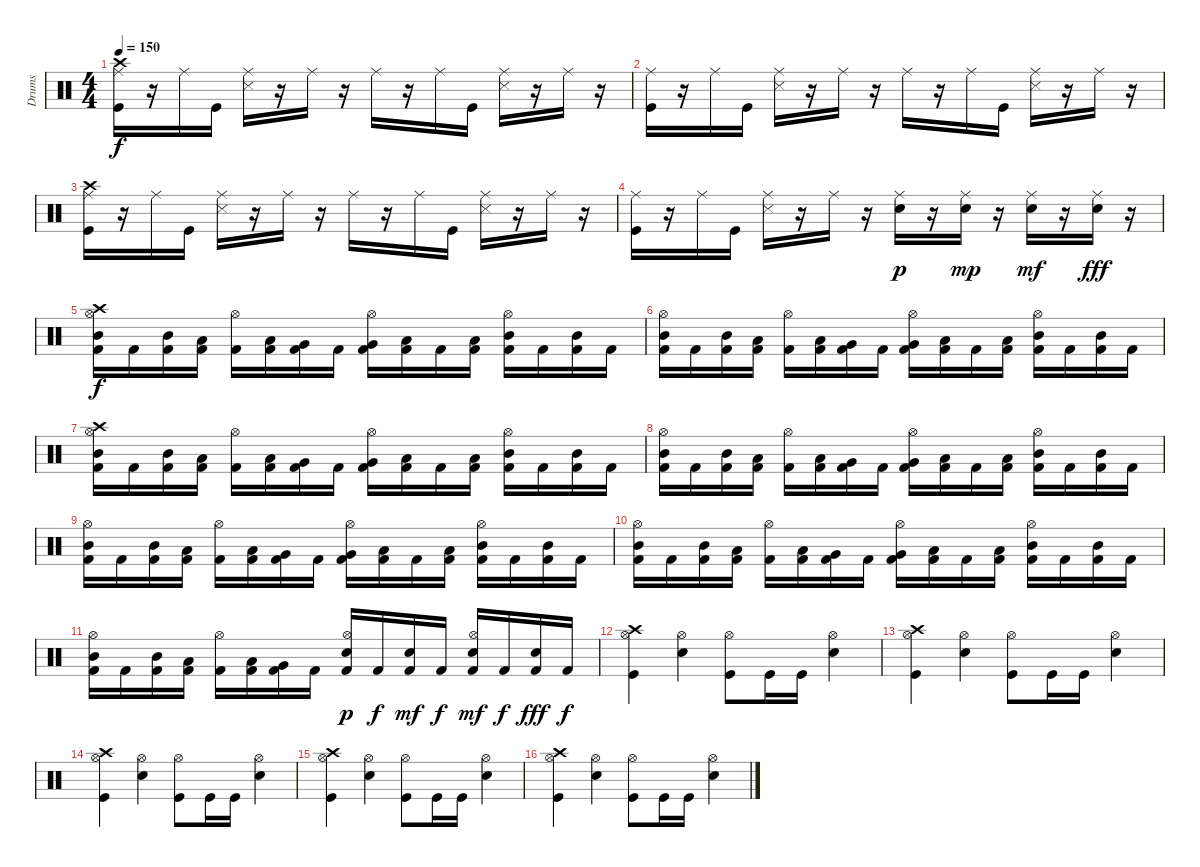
\track ("Drums" "Drums") {instrument percussion}
\staff {score}
\articulation defaults
\ts (4 4)
\tempo 150
\clef neutral
\ks c
("Crash high (hit)" "Ride (middle)" "Kick (hit)").16{dy f} r.16 "Ride (middle)".16 "Kick (hit)".16 ("Ride (middle)" "Snare (side stick) 3").16 r.16 "Ride (middle)".16 r.16 "Ride (middle)".16 r.16 "Ride (middle)".16 "Kick (hit)".16 ("Ride (middle)" "Snare (side stick) 3").16 r.16 "Ride (middle)".16 r.16 |
("Ride (middle)" "Kick (hit)").16 r.16 "Ride (middle)".16 "Kick (hit)".16 ("Ride (middle)" "Snare (side stick) 3").16 r.16 "Ride (middle)".16 r.16 "Ride (middle)".16 r.16 "Ride (middle)".16 "Kick (hit)".16 ("Ride (middle)" "Snare (side stick) 3").16 r.16 "Ride (middle)".16 r.16 |
("Crash high (hit)" "Ride (middle)" "Kick (hit)").16 r.16 "Ride (middle)".16 "Kick (hit)".16 ("Ride (middle)" "Snare (side stick) 3").16 r.16 "Ride (middle)".16 r.16 "Ride (middle)".16 r.16 "Ride (middle)".16 "Kick (hit)".16 ("Ride (middle)" "Snare (side stick) 3").16 r.16 "Ride (middle)".16 r.16 |
("Ride (middle)" "Kick (hit)").16 r.16 "Ride (middle)".16 "Kick (hit)".16 ("Ride (middle)" "Snare (side stick) 3").16 r.16 "Ride (middle)".16 r.16 ("Ride (middle)" "Electric Snare (hit)").16{dy p} r.16 ("Ride (middle)" "Electric Snare (hit)").16{dy mp} r.16 ("Ride (middle)" "Electric Snare (hit)").16{dy mf} r.16 ("Ride (middle)" "Electric Snare (hit)").16{dy fff} r.16 |
("Hi-Hat (open)" "Crash high (hit)" "Mid Tom (hit)" "Kick (hit) 2").16{dy f} "Kick (hit) 2".16 ("Mid Tom (hit)" "Kick (hit) 2").16 ("Low Tom (hit)" "Kick (hit) 2").16 ("Hi-Hat (open)" "Kick (hit) 2").16 ("Low Tom (hit)" "Kick (hit) 2").16 ("Very Low Tom (hit)" "Kick (hit) 2").16 "Kick (hit) 2".16 ("Hi-Hat (open)" "Very Low Tom (hit)" "Kick (hit) 2").16 ("Low Floor Tom (hit)" "Kick (hit) 2").16 "Kick (hit) 2".16 ("Low Floor Tom (hit)" "Kick (hit) 2").16 ("Hi-Hat (open)" "Mid Tom (hit)" "Kick (hit) 2").16 "Kick (hit) 2".16 ("Mid Tom (hit)" "Kick (hit) 2").16 "Kick (hit) 2".16 |
("Hi-Hat (open)" "Mid Tom (hit)" "Kick (hit) 2").16 "Kick (hit) 2".16 ("Mid Tom (hit)" "Kick (hit) 2").16 ("Low Tom (hit)" "Kick (hit) 2").16 ("Hi-Hat (open)" "Kick (hit) 2").16 ("Low Tom (hit)" "Kick (hit) 2").16 ("Very Low Tom (hit)" "Kick (hit) 2").16 "Kick (hit) 2".16 ("Hi-Hat (open)" "Very Low Tom (hit)" "Kick (hit) 2").16 ("Low Floor Tom (hit)" "Kick (hit) 2").16 "Kick (hit) 2".16 ("Low Floor Tom (hit)" "Kick (hit) 2").16 ("Hi-Hat (open)" "Mid Tom (hit)" "Kick (hit) 2").16 "Kick (hit) 2".16 ("Mid Tom (hit)" "Kick (hit) 2").16 "Kick (hit) 2".16 |
("Hi-Hat (open)" "Crash high (hit)" "Mid Tom (hit)" "Kick (hit) 2").16 "Kick (hit) 2".16 ("Mid Tom (hit)" "Kick (hit) 2").16 ("Low Tom (hit)" "Kick (hit) 2").16 ("Hi-Hat (open)" "Kick (hit) 2").16 ("Low Tom (hit)" "Kick (hit) 2").16 ("Very Low Tom (hit)" "Kick (hit) 2").16 "Kick (hit) 2".16 ("Hi-Hat (open)" "Very Low Tom (hit)" "Kick (hit) 2").16 ("Low Floor Tom (hit)" "Kick (hit) 2").16 "Kick (hit) 2".16 ("Low Floor Tom (hit)" "Kick (hit) 2").16 ("Hi-Hat (open)" "Mid Tom (hit)" "Kick (hit) 2").16 "Kick (hit) 2".16 ("Mid Tom (hit)" "Kick (hit) 2").16 "Kick (hit) 2".16 |
("Hi-Hat (open)" "Mid Tom (hit)" "Kick (hit) 2").16 "Kick (hit) 2".16 ("Mid Tom (hit)" "Kick (hit) 2").16 ("Low Tom (hit)" "Kick (hit) 2").16 ("Hi-Hat (open)" "Kick (hit) 2").16 ("Low Tom (hit)" "Kick (hit) 2").16 ("Very Low Tom (hit)" "Kick (hit) 2").16 "Kick (hit) 2".16 ("Hi-Hat (open)" "Very Low Tom (hit)" "Kick (hit) 2").16 ("Low Floor Tom (hit)" "Kick (hit) 2").16 "Kick (hit) 2".16 ("Low Floor Tom (hit)" "Kick (hit) 2").16 ("Hi-Hat (open)" "Mid Tom (hit)" "Kick (hit) 2").16 "Kick (hit) 2".16 ("Mid Tom (hit)" "Kick (hit) 2").16 "Kick (hit) 2".16 |
("Hi-Hat (open)" "Mid Tom (hit)" "Kick (hit) 2").16 "Kick (hit) 2".16 ("Mid Tom (hit)" "Kick (hit) 2").16 ("Low Tom (hit)" "Kick (hit) 2").16 ("Hi-Hat (open)" "Kick (hit) 2").16 ("Low Tom (hit)" "Kick (hit) 2").16 ("Very Low Tom (hit)" "Kick (hit) 2").16 "Kick (hit) 2".16 ("Hi-Hat (open)" "Very Low Tom (hit)" "Kick (hit) 2").16 ("Low Floor Tom (hit)" "Kick (hit) 2").16 "Kick (hit) 2".16 ("Low Floor Tom (hit)" "Kick (hit) 2").16 ("Hi-Hat (open)" "Mid Tom (hit)" "Kick (hit) 2").16 "Kick (hit) 2".16 ("Mid Tom (hit)" "Kick (hit) 2").16 "Kick (hit) 2".16 |
("Hi-Hat (open)" "Mid Tom (hit)" "Kick (hit) 2").16 "Kick (hit) 2".16 ("Mid Tom (hit)" "Kick (hit) 2").16 ("Low Tom (hit)" "Kick (hit) 2").16 ("Hi-Hat (open)" "Kick (hit) 2").16 ("Low Tom (hit)" "Kick (hit) 2").16 ("Very Low Tom (hit)" "Kick (hit) 2").16 "Kick (hit) 2".16 ("Hi-Hat (open)" "Very Low Tom (hit)" "Kick (hit) 2").16 ("Low Floor Tom (hit)" "Kick (hit) 2").16 "Kick (hit) 2".16 ("Low Floor Tom (hit)" "Kick (hit) 2").16 ("Hi-Hat (open)" "Mid Tom (hit)" "Kick (hit) 2").16 "Kick (hit) 2".16 ("Mid Tom (hit)" "Kick (hit) 2").16 "Kick (hit) 2".16 |
("Hi-Hat (open)" "Mid Tom (hit)" "Kick (hit) 2").16 "Kick (hit) 2".16 ("Mid Tom (hit)" "Kick (hit) 2").16 ("Low Tom (hit)" "Kick (hit) 2").16 ("Hi-Hat (open)" "Kick (hit) 2").16 ("Low Tom (hit)" "Kick (hit) 2").16 ("Very Low Tom (hit)" "Kick (hit) 2").16 "Kick (hit) 2".16 ("Hi-Hat (open)" "Electric Snare (hit)" "Kick (hit) 2").16{dy p} "Kick (hit) 2".16{dy f} ("Electric Snare (hit)" "Kick (hit) 2").16{dy mf} "Kick (hit) 2".16{dy f} ("Hi-Hat (open)" "Electric Snare (hit)" "Kick (hit) 2").16{dy mf} "Kick (hit) 2".16{dy f} ("Electric Snare (hit)" "Kick (hit) 2").16{dy fff} "Kick (hit) 2".16{dy f} |
("Hi-Hat (open)" "Crash high (hit)" "Kick (hit)").4 ("Hi-Hat (open)" "Electric Snare (hit)").4 ("Hi-Hat (open)" "Kick (hit)").8 "Kick (hit)".16 "Kick (hit)".16 ("Hi-Hat (open)" "Electric Snare (hit)").4 |
("Hi-Hat (open)" "Crash high (hit)" "Kick (hit)").4 ("Hi-Hat (open)" "Electric Snare (hit)").4 ("Hi-Hat (open)" "Kick (hit)").8 "Kick (hit)".16 "Kick (hit)".16 ("Hi-Hat (open)" "Electric Snare (hit)").4 |
("Hi-Hat (open)" "Crash high (hit)" "Kick (hit)").4 ("Hi-Hat (open)" "Electric Snare (hit)").4 ("Hi-Hat (open)" "Kick (hit)").8 "Kick (hit)".16 "Kick (hit)".16 ("Hi-Hat (open)" "Electric Snare (hit)").4 |
("Hi-Hat (open)" "Crash high (hit)" "Kick (hit)").4 ("Hi-Hat (open)" "Electric Snare (hit)").4 ("Hi-Hat (open)" "Kick (hit)").8 "Kick (hit)".16 "Kick (hit)".16 ("Hi-Hat (open)" "Electric Snare (hit)").4 |
("Hi-Hat (open)" "Crash high (hit)" "Kick (hit)").4 ("Hi-Hat (open)" "Electric Snare (hit)").4 ("Hi-Hat (open)" "Kick (hit)").8 "Kick (hit)".16 "Kick (hit)".16 ("Hi-Hat (open)" "Electric Snare (hit)").4
